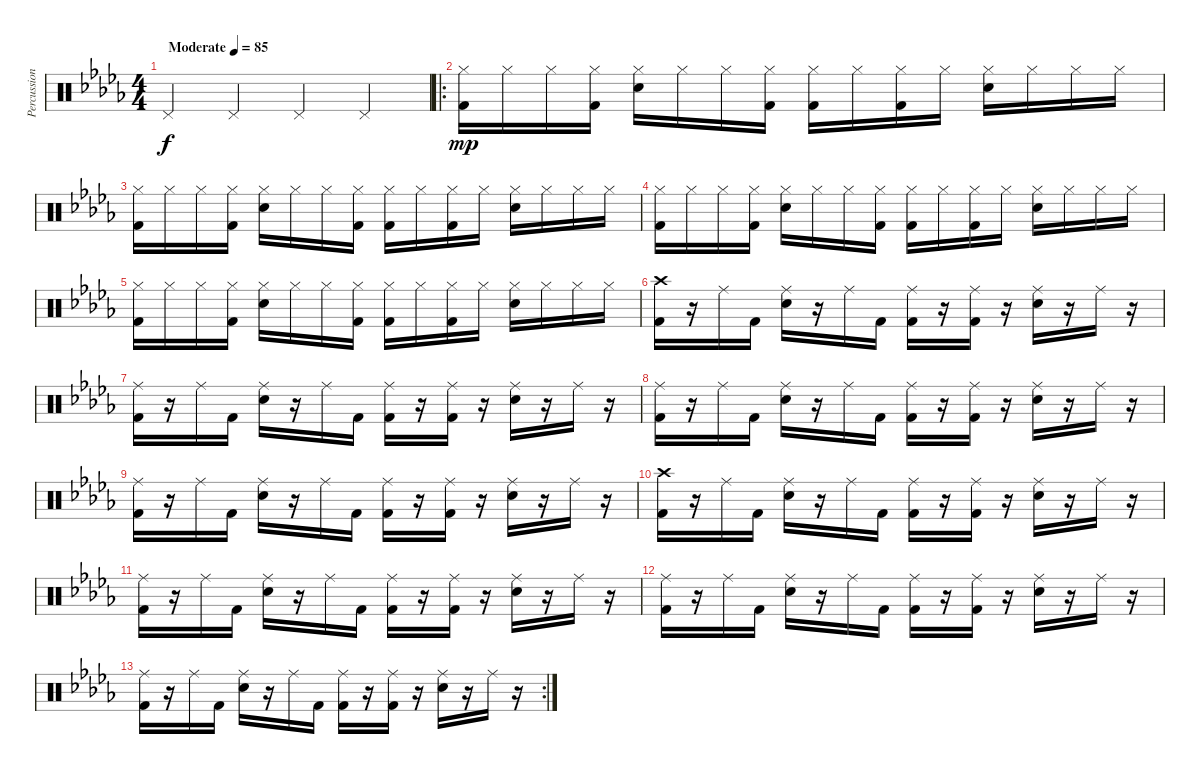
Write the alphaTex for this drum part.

\track ("Percussion" "Percussion") {instrument percussion}
\staff {score}
\articulation defaults
\ts (4 4)
\tempo (85 "Moderate")
\clef neutral
\ks bbminor "Pedal Hi-Hat (hit)".4{dy f} "Pedal Hi-Hat (hit)".4 "Pedal Hi-Hat (hit)".4 "Pedal Hi-Hat (hit)".4
|
\ro
("Hi-Hat (closed)" "Kick (hit) 2").16{dy mp} "Hi-Hat (closed)".16 "Hi-Hat (closed)".16 ("Hi-Hat (closed)" "Kick (hit) 2").16 ("Hi-Hat (closed)" "Electric Snare (hit)").16 "Hi-Hat (closed)".16 "Hi-Hat (closed)".16 ("Hi-Hat (closed)" "Kick (hit) 2").16 ("Hi-Hat (closed)" "Kick (hit) 2").16 "Hi-Hat (closed)".16 ("Hi-Hat (closed)" "Kick (hit) 2").16 "Hi-Hat (closed)".16 ("Hi-Hat (closed)" "Electric Snare (hit)").16 "Hi-Hat (closed)".16 "Hi-Hat (closed)".16 "Hi-Hat (closed)".16 |
("Hi-Hat (closed)" "Kick (hit) 2").16 "Hi-Hat (closed)".16 "Hi-Hat (closed)".16 ("Hi-Hat (closed)" "Kick (hit) 2").16 ("Hi-Hat (closed)" "Electric Snare (hit)").16 "Hi-Hat (closed)".16 "Hi-Hat (closed)".16 ("Hi-Hat (closed)" "Kick (hit) 2").16 ("Hi-Hat (closed)" "Kick (hit) 2").16 "Hi-Hat (closed)".16 ("Hi-Hat (closed)" "Kick (hit) 2").16 "Hi-Hat (closed)".16 ("Hi-Hat (closed)" "Electric Snare (hit)").16 "Hi-Hat (closed)".16 "Hi-Hat (closed)".16 "Hi-Hat (closed)".16 |
("Hi-Hat (closed)" "Kick (hit) 2").16 "Hi-Hat (closed)".16 "Hi-Hat (closed)".16 ("Hi-Hat (closed)" "Kick (hit) 2").16 ("Hi-Hat (closed)" "Electric Snare (hit)").16 "Hi-Hat (closed)".16 "Hi-Hat (closed)".16 ("Hi-Hat (closed)" "Kick (hit) 2").16 ("Hi-Hat (closed)" "Kick (hit) 2").16 "Hi-Hat (closed)".16 ("Hi-Hat (closed)" "Kick (hit) 2").16 "Hi-Hat (closed)".16 ("Hi-Hat (closed)" "Electric Snare (hit)").16 "Hi-Hat (closed)".16 "Hi-Hat (closed)".16 "Hi-Hat (closed)".16 |
("Hi-Hat (closed)" "Kick (hit) 2").16 "Hi-Hat (closed)".16 "Hi-Hat (closed)".16 ("Hi-Hat (closed)" "Kick (hit) 2").16 ("Hi-Hat (closed)" "Electric Snare (hit)").16 "Hi-Hat (closed)".16 "Hi-Hat (closed)".16 ("Hi-Hat (closed)" "Kick (hit) 2").16 ("Hi-Hat (closed)" "Kick (hit) 2").16 "Hi-Hat (closed)".16 ("Hi-Hat (closed)" "Kick (hit) 2").16 "Hi-Hat (closed)".16 ("Hi-Hat (closed)" "Electric Snare (hit)").16 "Hi-Hat (closed)".16 "Hi-Hat (closed)".16 "Hi-Hat (closed)".16 |
("Crash high (hit)" "Kick (hit) 2").16 r.16 "Ride (middle)".16 "Kick (hit) 2".16 ("Ride (middle)" "Electric Snare (hit)").16 r.16 "Ride (middle)".16 "Kick (hit) 2".16 ("Ride (middle)" "Kick (hit) 2").16 r.16 ("Ride (middle)" "Kick (hit) 2").16 r.16 ("Ride (middle)" "Electric Snare (hit)").16 r.16 "Ride (middle)".16 r.16 |
("Ride (middle)" "Kick (hit) 2").16 r.16 "Ride (middle)".16 "Kick (hit) 2".16 ("Ride (middle)" "Electric Snare (hit)").16 r.16 "Ride (middle)".16 "Kick (hit) 2".16 ("Ride (middle)" "Kick (hit) 2").16 r.16 ("Ride (middle)" "Kick (hit) 2").16 r.16 ("Ride (middle)" "Electric Snare (hit)").16 r.16 "Ride (middle)".16 r.16 |
("Ride (middle)" "Kick (hit) 2").16 r.16 "Ride (middle)".16 "Kick (hit) 2".16 ("Ride (middle)" "Electric Snare (hit)").16 r.16 "Ride (middle)".16 "Kick (hit) 2".16 ("Ride (middle)" "Kick (hit) 2").16 r.16 ("Ride (middle)" "Kick (hit) 2").16 r.16 ("Ride (middle)" "Electric Snare (hit)").16 r.16 "Ride (middle)".16 r.16 |
("Ride (middle)" "Kick (hit) 2").16 r.16 "Ride (middle)".16 "Kick (hit) 2".16 ("Ride (middle)" "Electric Snare (hit)").16 r.16 "Ride (middle)".16 "Kick (hit) 2".16 ("Ride (middle)" "Kick (hit) 2").16 r.16 ("Ride (middle)" "Kick (hit) 2").16 r.16 ("Ride (middle)" "Electric Snare (hit)").16 r.16 "Ride (middle)".16 r.16 |
("Crash high (hit)" "Kick (hit) 2").16 r.16 "Ride (middle)".16 "Kick (hit) 2".16 ("Ride (middle)" "Electric Snare (hit)").16 r.16 "Ride (middle)".16 "Kick (hit) 2".16 ("Ride (middle)" "Kick (hit) 2").16 r.16 ("Ride (middle)" "Kick (hit) 2").16 r.16 ("Ride (middle)" "Electric Snare (hit)").16 r.16 "Ride (middle)".16 r.16 |
("Ride (middle)" "Kick (hit) 2").16 r.16 "Ride (middle)".16 "Kick (hit) 2".16 ("Ride (middle)" "Electric Snare (hit)").16 r.16 "Ride (middle)".16 "Kick (hit) 2".16 ("Ride (middle)" "Kick (hit) 2").16 r.16 ("Ride (middle)" "Kick (hit) 2").16 r.16 ("Ride (middle)" "Electric Snare (hit)").16 r.16 "Ride (middle)".16 r.16 |
("Ride (middle)" "Kick (hit) 2").16 r.16 "Ride (middle)".16 "Kick (hit) 2".16 ("Ride (middle)" "Electric Snare (hit)").16 r.16 "Ride (middle)".16 "Kick (hit) 2".16 ("Ride (middle)" "Kick (hit) 2").16 r.16 ("Ride (middle)" "Kick (hit) 2").16 r.16 ("Ride (middle)" "Electric Snare (hit)").16 r.16 "Ride (middle)".16 r.16 |
\rc 2
("Ride (middle)" "Kick (hit) 2").16 r.16 "Ride (middle)".16 "Kick (hit) 2".16 ("Ride (middle)" "Electric Snare (hit)").16 r.16 "Ride (middle)".16 "Kick (hit) 2".16 ("Ride (middle)" "Kick (hit) 2").16 r.16 ("Ride (middle)" "Kick (hit) 2").16 r.16 ("Ride (middle)" "Electric Snare (hit)").16 r.16 "Ride (middle)".16 r.16
